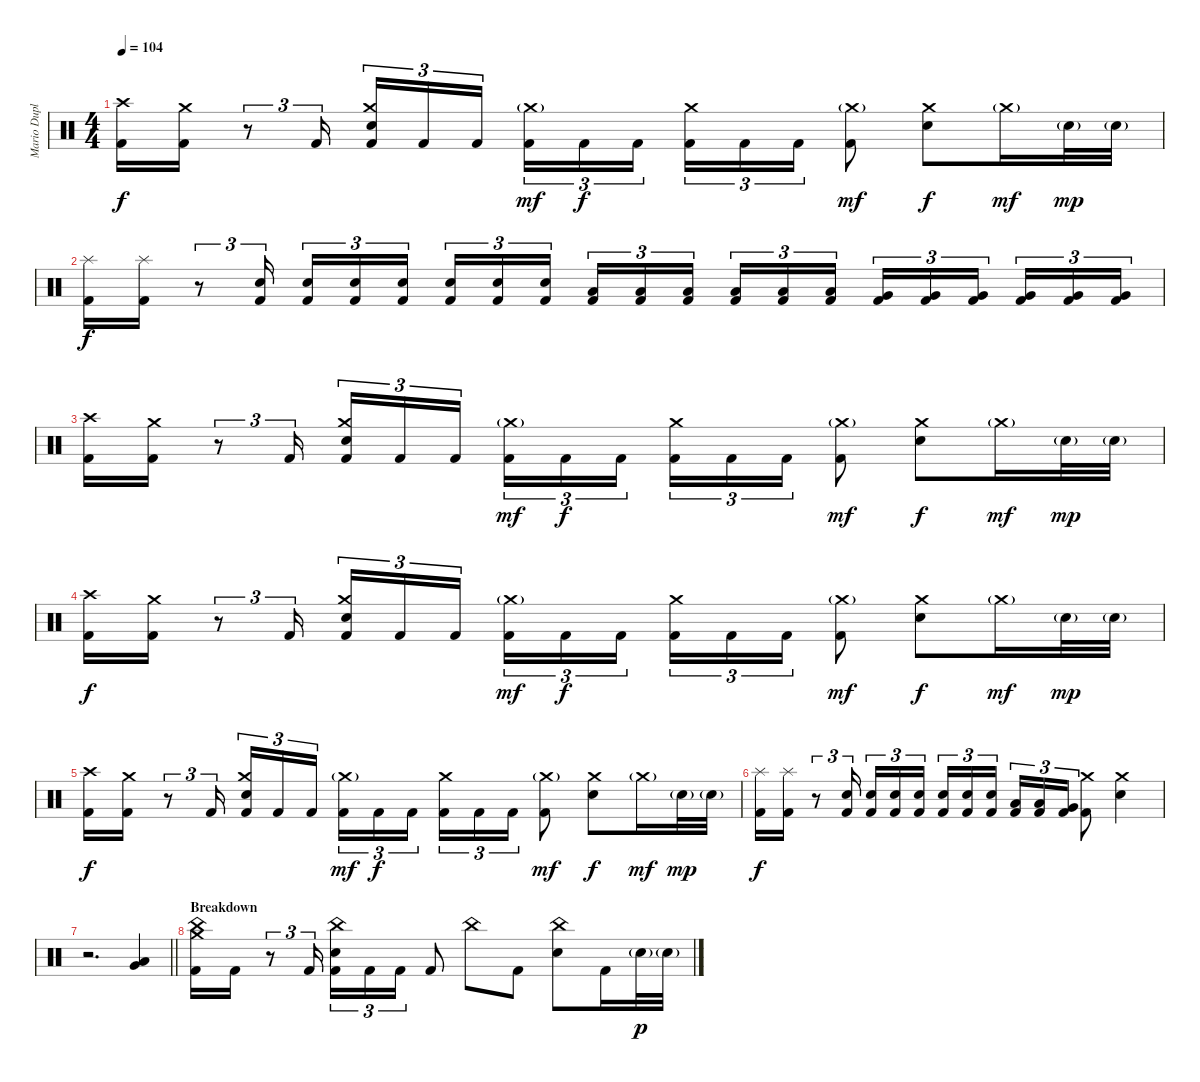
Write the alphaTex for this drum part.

\track ("Mario Duplantier" "Mario Dupl") {instrument percussion}
\staff {score}
\articulation defaults
\ts (4 4)
\tempo 104
\clef neutral
\ks c
("Crash high (hit)" "Kick (hit) 2").16{dy f} ("Crash medium (hit)" "Kick (hit) 2").16 r.8{tu (3 2)} "Kick (hit) 2".16{tu (3 2)} ("Crash medium (hit)" "Electric Snare (hit)" "Kick (hit) 2").16{tu (3 2)} "Kick (hit) 2".16{tu (3 2)} "Kick (hit) 2".16{tu (3 2) beam splitsecondary} ("Crash medium (hit)"{g} "Kick (hit) 2").16{tu (3 2) dy mf} "Kick (hit) 2".16{tu (3 2) dy f} "Kick (hit) 2".16{tu (3 2)} ("Crash medium (hit)" "Kick (hit) 2").16{tu (3 2)} "Kick (hit) 2".16{tu (3 2)} "Kick (hit) 2".16{tu (3 2)} ("Crash medium (hit)"{g} "Kick (hit) 2").8{dy mf} ("Crash medium (hit)" "Electric Snare (hit)").8{dy f} "Crash medium (hit)"{g}.16{dy mf} "Electric Snare (hit)"{g}.32{dy mp} "Electric Snare (hit)"{g}.32 |
("Splash (hit)" "Kick (hit) 2").16{dy f} ("Splash (hit)" "Kick (hit) 2").16 r.8{tu (3 2)} ("Electric Snare (hit)" "Kick (hit) 2").16{tu (3 2)} ("Electric Snare (hit)" "Kick (hit) 2").16{tu (3 2)} ("Electric Snare (hit)" "Kick (hit) 2").16{tu (3 2)} ("Electric Snare (hit)" "Kick (hit) 2").16{tu (3 2) beam splitsecondary} ("Electric Snare (hit)" "Kick (hit) 2").16{tu (3 2)} ("Electric Snare (hit)" "Kick (hit) 2").16{tu (3 2)} ("Electric Snare (hit)" "Kick (hit) 2").16{tu (3 2)} ("Low Tom (hit)" "Kick (hit) 2").16{tu (3 2)} ("Low Tom (hit)" "Kick (hit) 2").16{tu (3 2)} ("Low Tom (hit)" "Kick (hit) 2").16{tu (3 2) beam splitsecondary} ("Low Tom (hit)" "Kick (hit) 2").16{tu (3 2)} ("Low Tom (hit)" "Kick (hit) 2").16{tu (3 2)} ("Low Tom (hit)" "Kick (hit) 2").16{tu (3 2)} ("Very Low Tom (hit)" "Kick (hit) 2").16{tu (3 2)} ("Very Low Tom (hit)" "Kick (hit) 2").16{tu (3 2)} ("Very Low Tom (hit)" "Kick (hit) 2").16{tu (3 2) beam splitsecondary} ("Very Low Tom (hit)" "Kick (hit) 2").16{tu (3 2)} ("Very Low Tom (hit)" "Kick (hit) 2").16{tu (3 2)} ("Very Low Tom (hit)" "Kick (hit) 2").16{tu (3 2)} |
("Crash high (hit)" "Kick (hit) 2").16 ("Crash medium (hit)" "Kick (hit) 2").16 r.8{tu (3 2)} "Kick (hit) 2".16{tu (3 2)} ("Crash medium (hit)" "Electric Snare (hit)" "Kick (hit) 2").16{tu (3 2)} "Kick (hit) 2".16{tu (3 2)} "Kick (hit) 2".16{tu (3 2) beam splitsecondary} ("Crash medium (hit)"{g} "Kick (hit) 2").16{tu (3 2) dy mf} "Kick (hit) 2".16{tu (3 2) dy f} "Kick (hit) 2".16{tu (3 2)} ("Crash medium (hit)" "Kick (hit) 2").16{tu (3 2)} "Kick (hit) 2".16{tu (3 2)} "Kick (hit) 2".16{tu (3 2)} ("Crash medium (hit)"{g} "Kick (hit) 2").8{dy mf} ("Crash medium (hit)" "Electric Snare (hit)").8{dy f} "Crash medium (hit)"{g}.16{dy mf} "Electric Snare (hit)"{g}.32{dy mp} "Electric Snare (hit)"{g}.32 |
("Crash high (hit)" "Kick (hit) 2").16{dy f} ("Crash medium (hit)" "Kick (hit) 2").16 r.8{tu (3 2)} "Kick (hit) 2".16{tu (3 2)} ("Crash medium (hit)" "Electric Snare (hit)" "Kick (hit) 2").16{tu (3 2)} "Kick (hit) 2".16{tu (3 2)} "Kick (hit) 2".16{tu (3 2) beam splitsecondary} ("Crash medium (hit)"{g} "Kick (hit) 2").16{tu (3 2) dy mf} "Kick (hit) 2".16{tu (3 2) dy f} "Kick (hit) 2".16{tu (3 2)} ("Crash medium (hit)" "Kick (hit) 2").16{tu (3 2)} "Kick (hit) 2".16{tu (3 2)} "Kick (hit) 2".16{tu (3 2)} ("Crash medium (hit)"{g} "Kick (hit) 2").8{dy mf} ("Crash medium (hit)" "Electric Snare (hit)").8{dy f} "Crash medium (hit)"{g}.16{dy mf} "Electric Snare (hit)"{g}.32{dy mp} "Electric Snare (hit)"{g}.32 |
("Crash high (hit)" "Kick (hit) 2").16{dy f} ("Crash medium (hit)" "Kick (hit) 2").16 r.8{tu (3 2)} "Kick (hit) 2".16{tu (3 2)} ("Crash medium (hit)" "Electric Snare (hit)" "Kick (hit) 2").16{tu (3 2)} "Kick (hit) 2".16{tu (3 2)} "Kick (hit) 2".16{tu (3 2) beam splitsecondary} ("Crash medium (hit)"{g} "Kick (hit) 2").16{tu (3 2) dy mf} "Kick (hit) 2".16{tu (3 2) dy f} "Kick (hit) 2".16{tu (3 2)} ("Crash medium (hit)" "Kick (hit) 2").16{tu (3 2)} "Kick (hit) 2".16{tu (3 2)} "Kick (hit) 2".16{tu (3 2)} ("Crash medium (hit)"{g} "Kick (hit) 2").8{dy mf} ("Crash medium (hit)" "Electric Snare (hit)").8{dy f} "Crash medium (hit)"{g}.16{dy mf} "Electric Snare (hit)"{g}.32{dy mp} "Electric Snare (hit)"{g}.32 |
("Splash (hit)" "Kick (hit) 2").16{dy f} ("Splash (hit)" "Kick (hit) 2").16 r.8{tu (3 2)} ("Electric Snare (hit)" "Kick (hit) 2").16{tu (3 2)} ("Electric Snare (hit)" "Kick (hit) 2").16{tu (3 2)} ("Electric Snare (hit)" "Kick (hit) 2").16{tu (3 2)} ("Electric Snare (hit)" "Kick (hit) 2").16{tu (3 2) beam splitsecondary} ("Electric Snare (hit)" "Kick (hit) 2").16{tu (3 2)} ("Electric Snare (hit)" "Kick (hit) 2").16{tu (3 2)} ("Electric Snare (hit)" "Kick (hit) 2").16{tu (3 2)} ("Low Tom (hit)" "Kick (hit) 2").16{tu (3 2)} ("Low Tom (hit)" "Kick (hit) 2").16{tu (3 2)} ("Very Low Tom (hit)" "Kick (hit) 2").16{tu (3 2)} ("Crash medium (hit)" "Kick (hit) 2").8 ("Crash medium (hit)" "Electric Snare (hit)").4 |
\barLineRight lightlight
r.2{d} ("Very Low Tom (hit)" "Low Floor Tom (hit)").4 |
\section ("" "Breakdown")
("China (hit)" "Crash medium (hit)" "Kick (hit) 2").16 "Kick (hit) 2".16 r.8{tu (3 2)} "Kick (hit) 2".16{tu (3 2)} ("China (hit)" "Electric Snare (hit)" "Kick (hit) 2").16{tu (3 2)} "Kick (hit) 2".16{tu (3 2)} "Kick (hit) 2".16{tu (3 2)} "Kick (hit) 2".8 "China (hit)".8 "Kick (hit) 2".8 ("China (hit)" "Electric Snare (hit)").8 "Kick (hit) 2".16 "Electric Snare (hit)"{g}.32{dy p} "Electric Snare (hit)"{g}.32
